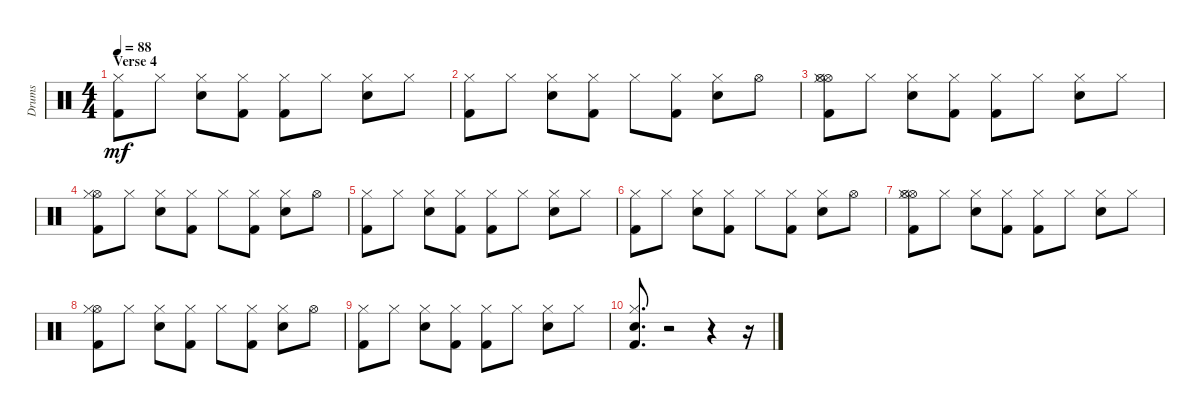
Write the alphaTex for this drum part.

\track ("Drums" "Drums") {instrument percussion}
\staff {score}
\articulation defaults
\ts (4 4)
\section ("" "Verse 4")
\tempo 88
\clef neutral
\ks c
("Kick (hit) 2" "Hi-Hat (closed)").8{dy mf} "Hi-Hat (closed)".8 ("Snare (hit) 2" "Hi-Hat (closed)").8 ("Kick (hit) 2" "Hi-Hat (closed)").8 ("Kick (hit) 2" "Hi-Hat (closed)").8 "Hi-Hat (closed)".8 ("Snare (hit) 2" "Hi-Hat (closed)").8 "Hi-Hat (closed)".8 |
("Kick (hit) 2" "Hi-Hat (closed)").8 "Hi-Hat (closed)".8 ("Snare (hit) 2" "Hi-Hat (closed)").8 ("Kick (hit) 2" "Hi-Hat (closed)").8 "Hi-Hat (closed)".8 ("Kick (hit) 2" "Hi-Hat (closed)").8 ("Snare (hit) 2" "Hi-Hat (closed)").8 "Hi-Hat (open)".8 |
("Kick (hit) 2" "Hi-Hat (open)" "Hi-Hat (open)" "Hi-Hat (closed)").8 "Hi-Hat (closed)".8 ("Snare (hit) 2" "Hi-Hat (closed)").8 ("Kick (hit) 2" "Hi-Hat (closed)").8 ("Kick (hit) 2" "Hi-Hat (closed)").8 "Hi-Hat (closed)".8 ("Snare (hit) 2" "Hi-Hat (closed)").8 "Hi-Hat (closed)".8 |
("Kick (hit) 2" "Hi-Hat (open)" "Hi-Hat (closed)").8 "Hi-Hat (closed)".8 ("Snare (hit) 2" "Hi-Hat (closed)").8 ("Kick (hit) 2" "Hi-Hat (closed)").8 "Hi-Hat (closed)".8 ("Kick (hit) 2" "Hi-Hat (closed)").8 ("Snare (hit) 2" "Hi-Hat (closed)").8 "Hi-Hat (open)".8 |
("Kick (hit) 2" "Hi-Hat (closed)").8 "Hi-Hat (closed)".8 ("Snare (hit) 2" "Hi-Hat (closed)").8 ("Kick (hit) 2" "Hi-Hat (closed)").8 ("Kick (hit) 2" "Hi-Hat (closed)").8 "Hi-Hat (closed)".8 ("Snare (hit) 2" "Hi-Hat (closed)").8 "Hi-Hat (closed)".8 |
("Kick (hit) 2" "Hi-Hat (closed)").8 "Hi-Hat (closed)".8 ("Snare (hit) 2" "Hi-Hat (closed)").8 ("Kick (hit) 2" "Hi-Hat (closed)").8 "Hi-Hat (closed)".8 ("Kick (hit) 2" "Hi-Hat (closed)").8 ("Snare (hit) 2" "Hi-Hat (closed)").8 "Hi-Hat (open)".8 |
("Kick (hit) 2" "Hi-Hat (open)" "Hi-Hat (open)" "Hi-Hat (closed)").8 "Hi-Hat (closed)".8 ("Snare (hit) 2" "Hi-Hat (closed)").8 ("Kick (hit) 2" "Hi-Hat (closed)").8 ("Kick (hit) 2" "Hi-Hat (closed)").8 "Hi-Hat (closed)".8 ("Snare (hit) 2" "Hi-Hat (closed)").8 "Hi-Hat (closed)".8 |
("Kick (hit) 2" "Hi-Hat (open)" "Hi-Hat (closed)").8 "Hi-Hat (closed)".8 ("Snare (hit) 2" "Hi-Hat (closed)").8 ("Kick (hit) 2" "Hi-Hat (closed)").8 "Hi-Hat (closed)".8 ("Kick (hit) 2" "Hi-Hat (closed)").8 ("Snare (hit) 2" "Hi-Hat (closed)").8 "Hi-Hat (open)".8 |
("Kick (hit) 2" "Hi-Hat (closed)").8 "Hi-Hat (closed)".8 ("Snare (hit) 2" "Hi-Hat (closed)").8 ("Kick (hit) 2" "Hi-Hat (closed)").8 ("Kick (hit) 2" "Hi-Hat (closed)").8 "Hi-Hat (closed)".8 ("Snare (hit) 2" "Hi-Hat (closed)").8 "Hi-Hat (closed)".8 |
("Kick (hit) 2" "Snare (hit) 2" "Hi-Hat (closed)").8{d} r.2 r.4 r.16
